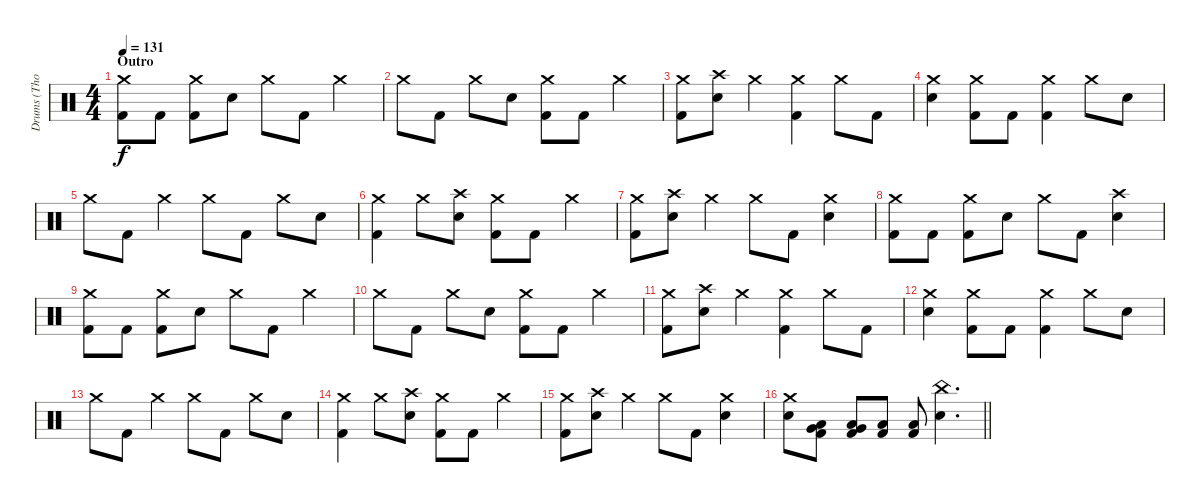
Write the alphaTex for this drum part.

\track ("Drums (Thomas Haake)" "Drums (Tho") {instrument percussion}
\staff {score}
\articulation defaults
\ts (4 4)
\section ("" "Outro")
\tempo 131
\clef neutral
\ks c
("Crash medium (hit)" "Kick (hit) 2").8{dy f} "Kick (hit) 2".8 ("Crash medium (hit)" "Kick (hit) 2").8 "Electric Snare (hit)".8 "Crash medium (hit)".8 "Kick (hit) 2".8 "Crash medium (hit)".4 |
"Crash medium (hit)".8 "Kick (hit) 2".8 "Crash medium (hit)".8 "Electric Snare (hit)".8 ("Crash medium (hit)" "Kick (hit) 2").8 "Kick (hit) 2".8 "Crash medium (hit)".4 |
("Crash medium (hit)" "Kick (hit) 2").8 ("Crash high (hit)" "Electric Snare (hit)").8 "Crash medium (hit)".4 ("Crash medium (hit)" "Kick (hit) 2").4 "Crash medium (hit)".8 "Kick (hit) 2".8 |
("Crash medium (hit)" "Electric Snare (hit)").4 ("Crash medium (hit)" "Kick (hit) 2").8 "Kick (hit) 2".8 ("Crash medium (hit)" "Kick (hit) 2").4 "Crash medium (hit)".8 "Electric Snare (hit)".8 |
"Crash medium (hit)".8 "Kick (hit) 2".8 "Crash medium (hit)".4 "Crash medium (hit)".8 "Kick (hit) 2".8 "Crash medium (hit)".8 "Electric Snare (hit)".8 |
("Crash medium (hit)" "Kick (hit) 2").4 "Crash medium (hit)".8 ("Crash high (hit)" "Electric Snare (hit)").8 ("Crash medium (hit)" "Kick (hit) 2").8 "Kick (hit) 2".8 "Crash medium (hit)".4 |
("Crash medium (hit)" "Kick (hit) 2").8 ("Crash high (hit)" "Electric Snare (hit)").8 "Crash medium (hit)".4 "Crash medium (hit)".8 "Kick (hit) 2".8 ("Crash medium (hit)" "Electric Snare (hit)").4 |
("Crash medium (hit)" "Kick (hit) 2").8 "Kick (hit) 2".8 ("Crash medium (hit)" "Kick (hit) 2").8 "Electric Snare (hit)".8 "Crash medium (hit)".8 "Kick (hit) 2".8 ("Crash high (hit)" "Electric Snare (hit)").4 |
("Crash medium (hit)" "Kick (hit) 2").8 "Kick (hit) 2".8 ("Crash medium (hit)" "Kick (hit) 2").8 "Electric Snare (hit)".8 "Crash medium (hit)".8 "Kick (hit) 2".8 "Crash medium (hit)".4 |
"Crash medium (hit)".8 "Kick (hit) 2".8 "Crash medium (hit)".8 "Electric Snare (hit)".8 ("Crash medium (hit)" "Kick (hit) 2").8 "Kick (hit) 2".8 "Crash medium (hit)".4 |
("Crash medium (hit)" "Kick (hit) 2").8 ("Crash high (hit)" "Electric Snare (hit)").8 "Crash medium (hit)".4 ("Crash medium (hit)" "Kick (hit) 2").4 "Crash medium (hit)".8 "Kick (hit) 2".8 |
("Crash medium (hit)" "Electric Snare (hit)").4 ("Crash medium (hit)" "Kick (hit) 2").8 "Kick (hit) 2".8 ("Crash medium (hit)" "Kick (hit) 2").4 "Crash medium (hit)".8 "Electric Snare (hit)".8 |
"Crash medium (hit)".8 "Kick (hit) 2".8 "Crash medium (hit)".4 "Crash medium (hit)".8 "Kick (hit) 2".8 "Crash medium (hit)".8 "Electric Snare (hit)".8 |
("Crash medium (hit)" "Kick (hit) 2").4 "Crash medium (hit)".8 ("Crash high (hit)" "Electric Snare (hit)").8 ("Crash medium (hit)" "Kick (hit) 2").8 "Kick (hit) 2".8 "Crash medium (hit)".4 |
("Crash medium (hit)" "Kick (hit) 2").8 ("Crash high (hit)" "Electric Snare (hit)").8 "Crash medium (hit)".4 "Crash medium (hit)".8 "Kick (hit) 2".8 ("Crash medium (hit)" "Electric Snare (hit)").4 |
\barLineRight lightlight
("Crash medium (hit)" "Electric Snare (hit)").8 ("Low Tom (hit)" "Very Low Tom (hit)" "Kick (hit) 2").8 ("Very Low Tom (hit)" "Low Floor Tom (hit)" "Kick (hit) 2").8 ("Low Floor Tom (hit)" "Kick (hit) 2").8 ("Low Floor Tom (hit)" "Kick (hit) 2").8 ("China (hit)" "Electric Snare (hit)").4{d}
